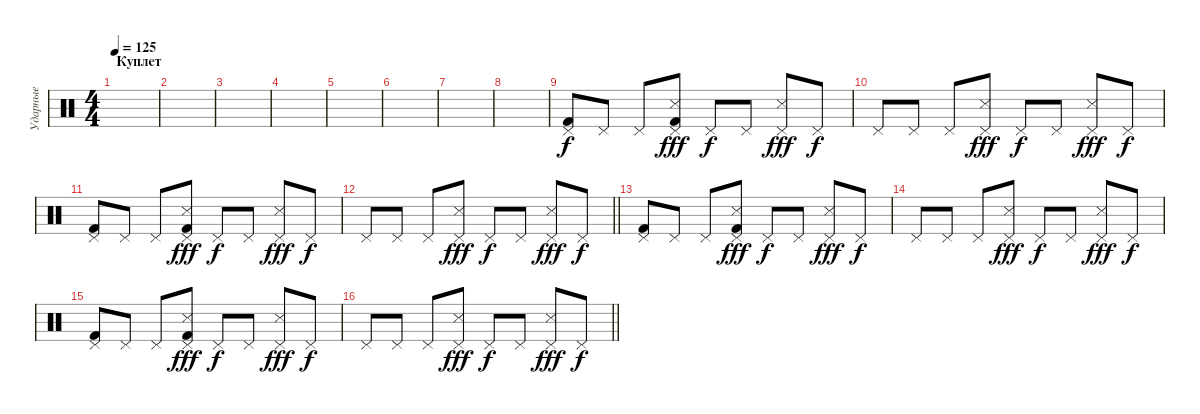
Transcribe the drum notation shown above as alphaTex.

\track ("Ударные" "Ударные") {instrument percussion}
\staff {score}
\articulation defaults
\ts (4 4)
\section ("" "Куплет")
\tempo 125
\clef neutral
\ks c
|
|
|
|
|
|
|
|
("Pedal Hi-Hat (hit)" "Kick (hit) 2").8 "Pedal Hi-Hat (hit)".8 "Pedal Hi-Hat (hit)".8 ("Pedal Hi-Hat (hit)" "Snare (side stick) 3" "Kick (hit) 2").8{dy fff} "Pedal Hi-Hat (hit)".8{dy f} "Pedal Hi-Hat (hit)".8 ("Pedal Hi-Hat (hit)" "Snare (side stick) 3").8{dy fff} "Pedal Hi-Hat (hit)".8{dy f} |
"Pedal Hi-Hat (hit)".8 "Pedal Hi-Hat (hit)".8 "Pedal Hi-Hat (hit)".8 ("Pedal Hi-Hat (hit)" "Snare (side stick) 3").8{dy fff} "Pedal Hi-Hat (hit)".8{dy f} "Pedal Hi-Hat (hit)".8 ("Pedal Hi-Hat (hit)" "Snare (side stick) 3").8{dy fff} "Pedal Hi-Hat (hit)".8{dy f} |
("Pedal Hi-Hat (hit)" "Kick (hit) 2").8 "Pedal Hi-Hat (hit)".8 "Pedal Hi-Hat (hit)".8 ("Pedal Hi-Hat (hit)" "Snare (side stick) 3" "Kick (hit) 2").8{dy fff} "Pedal Hi-Hat (hit)".8{dy f} "Pedal Hi-Hat (hit)".8 ("Pedal Hi-Hat (hit)" "Snare (side stick) 3").8{dy fff} "Pedal Hi-Hat (hit)".8{dy f} |
\barLineRight lightlight "Pedal Hi-Hat (hit)".8 "Pedal Hi-Hat (hit)".8 "Pedal Hi-Hat (hit)".8
("Pedal Hi-Hat (hit)" "Snare (side stick) 3").8{dy fff} "Pedal Hi-Hat (hit)".8{dy f} "Pedal Hi-Hat (hit)".8 ("Pedal Hi-Hat (hit)" "Snare (side stick) 3").8{dy fff} "Pedal Hi-Hat (hit)".8{dy f} |
("Pedal Hi-Hat (hit)" "Kick (hit) 2").8 "Pedal Hi-Hat (hit)".8 "Pedal Hi-Hat (hit)".8 ("Pedal Hi-Hat (hit)" "Snare (side stick) 3" "Kick (hit) 2").8{dy fff} "Pedal Hi-Hat (hit)".8{dy f} "Pedal Hi-Hat (hit)".8 ("Pedal Hi-Hat (hit)" "Snare (side stick) 3").8{dy fff} "Pedal Hi-Hat (hit)".8{dy f} |
"Pedal Hi-Hat (hit)".8 "Pedal Hi-Hat (hit)".8 "Pedal Hi-Hat (hit)".8 ("Pedal Hi-Hat (hit)" "Snare (side stick) 3").8{dy fff} "Pedal Hi-Hat (hit)".8{dy f} "Pedal Hi-Hat (hit)".8 ("Pedal Hi-Hat (hit)" "Snare (side stick) 3").8{dy fff} "Pedal Hi-Hat (hit)".8{dy f} |
("Pedal Hi-Hat (hit)" "Kick (hit) 2").8 "Pedal Hi-Hat (hit)".8 "Pedal Hi-Hat (hit)".8 ("Pedal Hi-Hat (hit)" "Snare (side stick) 3" "Kick (hit) 2").8{dy fff} "Pedal Hi-Hat (hit)".8{dy f} "Pedal Hi-Hat (hit)".8 ("Pedal Hi-Hat (hit)" "Snare (side stick) 3").8{dy fff} "Pedal Hi-Hat (hit)".8{dy f} |
\barLineRight lightlight "Pedal Hi-Hat (hit)".8 "Pedal Hi-Hat (hit)".8 "Pedal Hi-Hat (hit)".8
("Pedal Hi-Hat (hit)" "Snare (side stick) 3").8{dy fff} "Pedal Hi-Hat (hit)".8{dy f} "Pedal Hi-Hat (hit)".8 ("Pedal Hi-Hat (hit)" "Snare (side stick) 3").8{dy fff} "Pedal Hi-Hat (hit)".8{dy f}
